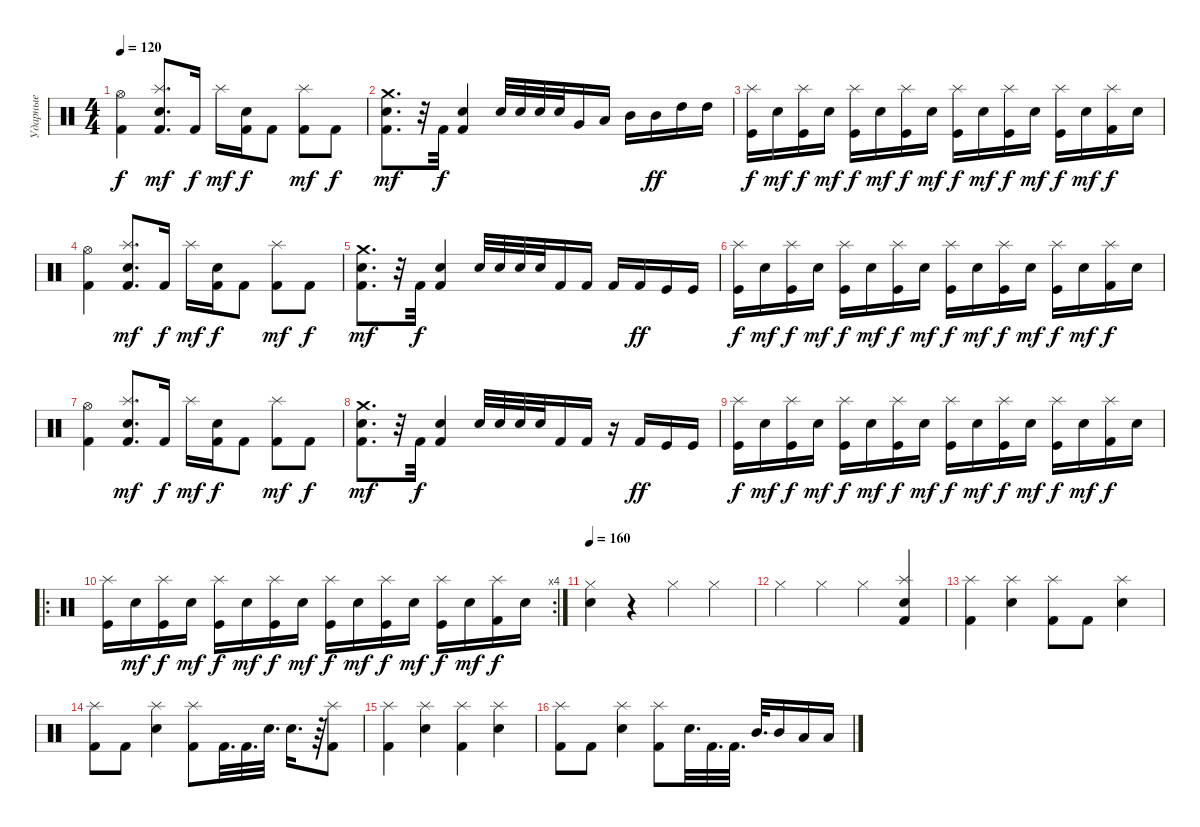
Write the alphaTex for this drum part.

\track ("Ударные" "Ударные") {instrument percussion}
\staff {score}
\articulation defaults
\ts (4 4)
\tempo 120
\clef neutral
\ks c
("Hi-Hat (open)" "Kick (hit) 2").4{dy f} ("Splash (hit)" "Electric Snare (hit)" "Kick (hit) 2").8{d dy mf} "Kick (hit) 2".16{dy f} "Splash (hit)".16{dy mf} ("Electric Snare (hit)" "Kick (hit) 2").16{dy f} "Kick (hit) 2".8 ("Splash (hit)" "Kick (hit) 2").8{dy mf} "Kick (hit) 2".8{dy f} |
("Crash medium (hit)" "Electric Snare (hit)" "Kick (hit) 2").8{d dy mf} r.32 "Kick (hit) 2".32{dy f} ("Electric Snare (hit)" "Kick (hit) 2").4 "Electric Snare (hit)".32 "Electric Snare (hit)".32 "Snare (hit) 2".32 "Snare (hit) 2".32 "Very Low Tom (hit)".16 "Low Tom (hit)".16 "Mid Tom (hit)".16 "Mid Tom (hit)".16{dy ff} "High Tom (hit)".16 "High Tom (hit)".16 |
("Splash (hit)" "Kick (hit)").16{dy f} "Electric Snare (hit)".16{dy mf} ("Splash (hit)" "Kick (hit)").16{dy f} "Electric Snare (hit)".16{dy mf} ("Splash (hit)" "Kick (hit)").16{dy f} "Electric Snare (hit)".16{dy mf} ("Splash (hit)" "Kick (hit)").16{dy f} "Electric Snare (hit)".16{dy mf} ("Splash (hit)" "Kick (hit)").16{dy f} "Electric Snare (hit)".16{dy mf} ("Splash (hit)" "Kick (hit)").16{dy f} "Electric Snare (hit)".16{dy mf} ("Splash (hit)" "Kick (hit)").16{dy f} "Electric Snare (hit)".16{dy mf} ("Splash (hit)" "Kick (hit) 2").16{dy f} "Electric Snare (hit)".16 |
("Hi-Hat (open)" "Kick (hit) 2").4 ("Splash (hit)" "Electric Snare (hit)" "Kick (hit) 2").8{d dy mf} "Kick (hit) 2".16{dy f} "Splash (hit)".16{dy mf} ("Electric Snare (hit)" "Kick (hit) 2").16{dy f} "Kick (hit) 2".8 ("Splash (hit)" "Kick (hit) 2").8{dy mf} "Kick (hit) 2".8{dy f} |
("Crash medium (hit)" "Electric Snare (hit)" "Kick (hit) 2").8{d dy mf} r.32 "Kick (hit) 2".32{dy f} ("Electric Snare (hit)" "Kick (hit) 2").4 "Electric Snare (hit)".32 "Electric Snare (hit)".32 "Snare (hit) 2".32 "Snare (hit) 2".32 "Kick (hit) 2".16 "Kick (hit) 2".16 "Kick (hit) 2".16 "Kick (hit) 2".16{dy ff} "Kick (hit)".16 "Kick (hit)".16 |
("Splash (hit)" "Kick (hit)").16{dy f} "Electric Snare (hit)".16{dy mf} ("Splash (hit)" "Kick (hit)").16{dy f} "Electric Snare (hit)".16{dy mf} ("Splash (hit)" "Kick (hit)").16{dy f} "Electric Snare (hit)".16{dy mf} ("Splash (hit)" "Kick (hit)").16{dy f} "Electric Snare (hit)".16{dy mf} ("Splash (hit)" "Kick (hit)").16{dy f} "Electric Snare (hit)".16{dy mf} ("Splash (hit)" "Kick (hit)").16{dy f} "Electric Snare (hit)".16{dy mf} ("Splash (hit)" "Kick (hit)").16{dy f} "Electric Snare (hit)".16{dy mf} ("Splash (hit)" "Kick (hit) 2").16{dy f} "Electric Snare (hit)".16 |
("Hi-Hat (open)" "Kick (hit) 2").4 ("Splash (hit)" "Electric Snare (hit)" "Kick (hit) 2").8{d dy mf} "Kick (hit) 2".16{dy f} "Splash (hit)".16{dy mf} ("Electric Snare (hit)" "Kick (hit) 2").16{dy f} "Kick (hit) 2".8 ("Splash (hit)" "Kick (hit) 2").8{dy mf} "Kick (hit) 2".8{dy f} |
("Crash medium (hit)" "Electric Snare (hit)" "Kick (hit) 2").8{d dy mf} r.32 "Kick (hit) 2".32{dy f} ("Electric Snare (hit)" "Kick (hit) 2").4 "Electric Snare (hit)".32 "Electric Snare (hit)".32 "Snare (hit) 2".32 "Snare (hit) 2".32 "Kick (hit) 2".16 "Kick (hit) 2".16 r.16 "Kick (hit) 2".16{dy ff} "Kick (hit)".16 "Kick (hit)".16 |
("Splash (hit)" "Kick (hit)").16{dy f} "Electric Snare (hit)".16{dy mf} ("Splash (hit)" "Kick (hit)").16{dy f} "Electric Snare (hit)".16{dy mf} ("Splash (hit)" "Kick (hit)").16{dy f} "Electric Snare (hit)".16{dy mf} ("Splash (hit)" "Kick (hit)").16{dy f} "Electric Snare (hit)".16{dy mf} ("Splash (hit)" "Kick (hit)").16{dy f} "Electric Snare (hit)".16{dy mf} ("Splash (hit)" "Kick (hit)").16{dy f} "Electric Snare (hit)".16{dy mf} ("Splash (hit)" "Kick (hit)").16{dy f} "Electric Snare (hit)".16{dy mf} ("Splash (hit)" "Kick (hit) 2").16{dy f} "Electric Snare (hit)".16 |
\ro
\rc 4
("Splash (hit)" "Kick (hit)").16 "Electric Snare (hit)".16{dy mf} ("Splash (hit)" "Kick (hit)").16{dy f} "Electric Snare (hit)".16{dy mf} ("Splash (hit)" "Kick (hit)").16{dy f} "Electric Snare (hit)".16{dy mf} ("Splash (hit)" "Kick (hit)").16{dy f} "Electric Snare (hit)".16{dy mf} ("Splash (hit)" "Kick (hit)").16{dy f} "Electric Snare (hit)".16{dy mf} ("Splash (hit)" "Kick (hit)").16{dy f} "Electric Snare (hit)".16{dy mf} ("Splash (hit)" "Kick (hit)").16{dy f} "Electric Snare (hit)".16{dy mf} ("Splash (hit)" "Kick (hit) 2").16{dy f} "Electric Snare (hit)".16 |
\tempo 160
("Hi-Hat (closed)" "Electric Snare (hit)").4 r.4 "Hi-Hat (closed)".4 "Hi-Hat (closed)".4 |
"Hi-Hat (closed)".4 "Hi-Hat (closed)".4 "Hi-Hat (closed)".4 ("Splash (hit)" "Electric Snare (hit)" "Kick (hit) 2").4 |
("Splash (hit)" "Kick (hit) 2").4 ("Splash (hit)" "Electric Snare (hit)").4 ("Splash (hit)" "Kick (hit) 2").8 "Kick (hit) 2".8 ("Splash (hit)" "Electric Snare (hit)").4 |
("Splash (hit)" "Kick (hit) 2").8 "Kick (hit) 2".8 ("Splash (hit)" "Electric Snare (hit)").4 ("Splash (hit)" "Kick (hit) 2").8 "Kick (hit) 2".32{d} "Kick (hit) 2".32{d} "Electric Snare (hit)".32{d} "Electric Snare (hit)".16{d} r.64 ("Splash (hit)" "Kick (hit) 2").8 |
("Splash (hit)" "Kick (hit) 2").4 ("Splash (hit)" "Electric Snare (hit)").4 ("Splash (hit)" "Kick (hit) 2").4 ("Splash (hit)" "Electric Snare (hit)").4 |
("Splash (hit)" "Kick (hit) 2").8 "Kick (hit) 2".8 ("Splash (hit)" "Electric Snare (hit)").4 ("Splash (hit)" "Kick (hit) 2").8 "Electric Snare (hit)".32{d} "Kick (hit) 2".32{d} "Kick (hit) 2".32{d} "Mid Tom (hit)".32{d} "Mid Tom (hit)".16 "Low Tom (hit)".16 "Low Tom (hit)".16
